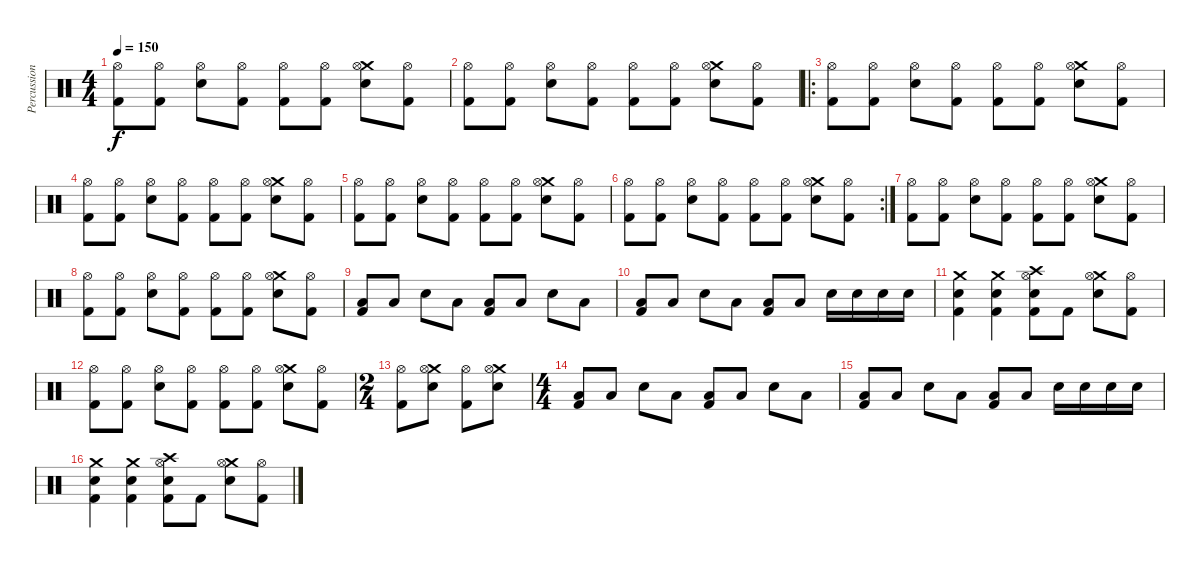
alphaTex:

\track ("Percussion" "Percussion") {instrument percussion}
\staff {score}
\articulation defaults
\ts (4 4)
\tempo 150
\clef neutral
\ks c
("Hi-Hat (open)" "Kick (hit) 2").8{dy f} ("Hi-Hat (open)" "Kick (hit) 2").8 ("Hi-Hat (open)" "Snare (hit) 2").8 ("Hi-Hat (open)" "Kick (hit) 2").8 ("Hi-Hat (open)" "Kick (hit) 2").8 ("Hi-Hat (open)" "Kick (hit) 2").8 ("Crash medium (hit)" "Hi-Hat (open)" "Snare (hit) 2").8 ("Hi-Hat (open)" "Kick (hit) 2").8 |
("Hi-Hat (open)" "Kick (hit) 2").8 ("Hi-Hat (open)" "Kick (hit) 2").8 ("Hi-Hat (open)" "Snare (hit) 2").8 ("Hi-Hat (open)" "Kick (hit) 2").8 ("Hi-Hat (open)" "Kick (hit) 2").8 ("Hi-Hat (open)" "Kick (hit) 2").8 ("Crash medium (hit)" "Hi-Hat (open)" "Snare (hit) 2").8 ("Hi-Hat (open)" "Kick (hit) 2").8 |
\ro
("Hi-Hat (open)" "Kick (hit) 2").8 ("Hi-Hat (open)" "Kick (hit) 2").8 ("Hi-Hat (open)" "Snare (hit) 2").8 ("Hi-Hat (open)" "Kick (hit) 2").8 ("Hi-Hat (open)" "Kick (hit) 2").8 ("Hi-Hat (open)" "Kick (hit) 2").8 ("Crash medium (hit)" "Hi-Hat (open)" "Snare (hit) 2").8 ("Hi-Hat (open)" "Kick (hit) 2").8 |
("Hi-Hat (open)" "Kick (hit) 2").8 ("Hi-Hat (open)" "Kick (hit) 2").8 ("Hi-Hat (open)" "Snare (hit) 2").8 ("Hi-Hat (open)" "Kick (hit) 2").8 ("Hi-Hat (open)" "Kick (hit) 2").8 ("Hi-Hat (open)" "Kick (hit) 2").8 ("Crash medium (hit)" "Hi-Hat (open)" "Snare (hit) 2").8 ("Hi-Hat (open)" "Kick (hit) 2").8 |
("Hi-Hat (open)" "Kick (hit) 2").8 ("Hi-Hat (open)" "Kick (hit) 2").8 ("Hi-Hat (open)" "Snare (hit) 2").8 ("Hi-Hat (open)" "Kick (hit) 2").8 ("Hi-Hat (open)" "Kick (hit) 2").8 ("Hi-Hat (open)" "Kick (hit) 2").8 ("Crash medium (hit)" "Hi-Hat (open)" "Snare (hit) 2").8 ("Hi-Hat (open)" "Kick (hit) 2").8 |
\rc 2
("Hi-Hat (open)" "Kick (hit) 2").8 ("Hi-Hat (open)" "Kick (hit) 2").8 ("Hi-Hat (open)" "Snare (hit) 2").8 ("Hi-Hat (open)" "Kick (hit) 2").8 ("Hi-Hat (open)" "Kick (hit) 2").8 ("Hi-Hat (open)" "Kick (hit) 2").8 ("Crash medium (hit)" "Hi-Hat (open)" "Snare (hit) 2").8 ("Hi-Hat (open)" "Kick (hit) 2").8 |
("Hi-Hat (open)" "Kick (hit) 2").8 ("Hi-Hat (open)" "Kick (hit) 2").8 ("Hi-Hat (open)" "Snare (hit) 2").8 ("Hi-Hat (open)" "Kick (hit) 2").8 ("Hi-Hat (open)" "Kick (hit) 2").8 ("Hi-Hat (open)" "Kick (hit) 2").8 ("Crash medium (hit)" "Hi-Hat (open)" "Snare (hit) 2").8 ("Hi-Hat (open)" "Kick (hit) 2").8 |
("Hi-Hat (open)" "Kick (hit) 2").8 ("Hi-Hat (open)" "Kick (hit) 2").8 ("Hi-Hat (open)" "Snare (hit) 2").8 ("Hi-Hat (open)" "Kick (hit) 2").8 ("Hi-Hat (open)" "Kick (hit) 2").8 ("Hi-Hat (open)" "Kick (hit) 2").8 ("Crash medium (hit)" "Hi-Hat (open)" "Snare (hit) 2").8 ("Hi-Hat (open)" "Kick (hit) 2").8 |
("Low Floor Tom (hit)" "Kick (hit) 2").8 "Low Floor Tom (hit)".8 "Snare (hit) 2".8 "Low Floor Tom (hit)".8 ("Low Floor Tom (hit)" "Kick (hit) 2").8 "Low Floor Tom (hit)".8 "Snare (hit) 2".8 "Low Floor Tom (hit)".8 |
("Low Floor Tom (hit)" "Kick (hit) 2").8 "Low Floor Tom (hit)".8 "Snare (hit) 2".8 "Low Floor Tom (hit)".8 ("Low Floor Tom (hit)" "Kick (hit) 2").8 "Low Floor Tom (hit)".8 "Snare (hit) 2".16 "Snare (hit) 2".16 "Snare (hit) 2".16 "Snare (hit) 2".16 |
("Crash medium (hit)" "Snare (hit) 2" "Kick (hit) 2").4 ("Crash medium (hit)" "Snare (hit) 2" "Kick (hit) 2").4 ("Crash high (hit)" "Hi-Hat (open)" "Snare (hit) 2" "Kick (hit) 2").8 "Kick (hit) 2".8 ("Crash medium (hit)" "Hi-Hat (open)" "Snare (hit) 2").8 ("Hi-Hat (open)" "Kick (hit) 2").8 |
("Hi-Hat (open)" "Kick (hit) 2").8 ("Hi-Hat (open)" "Kick (hit) 2").8 ("Hi-Hat (open)" "Snare (hit) 2").8 ("Hi-Hat (open)" "Kick (hit) 2").8 ("Hi-Hat (open)" "Kick (hit) 2").8 ("Hi-Hat (open)" "Kick (hit) 2").8 ("Crash medium (hit)" "Hi-Hat (open)" "Snare (hit) 2").8 ("Hi-Hat (open)" "Kick (hit) 2").8 |
\ts (2 4)
("Hi-Hat (open)" "Kick (hit) 2").8 ("Crash medium (hit)" "Hi-Hat (open)" "Snare (hit) 2").8 ("Hi-Hat (open)" "Kick (hit) 2").8 ("Crash medium (hit)" "Hi-Hat (open)" "Snare (hit) 2").8 |
\ts (4 4)
("Low Floor Tom (hit)" "Kick (hit) 2").8 "Low Floor Tom (hit)".8 "Snare (hit) 2".8 "Low Floor Tom (hit)".8 ("Low Floor Tom (hit)" "Kick (hit) 2").8 "Low Floor Tom (hit)".8 "Snare (hit) 2".8 "Low Floor Tom (hit)".8 |
("Low Floor Tom (hit)" "Kick (hit) 2").8 "Low Floor Tom (hit)".8 "Snare (hit) 2".8 "Low Floor Tom (hit)".8 ("Low Floor Tom (hit)" "Kick (hit) 2").8 "Low Floor Tom (hit)".8 "Snare (hit) 2".16 "Snare (hit) 2".16 "Snare (hit) 2".16 "Snare (hit) 2".16 |
("Crash medium (hit)" "Snare (hit) 2" "Kick (hit) 2").4 ("Crash medium (hit)" "Snare (hit) 2" "Kick (hit) 2").4 ("Crash high (hit)" "Hi-Hat (open)" "Snare (hit) 2" "Kick (hit) 2").8 "Kick (hit) 2".8 ("Crash medium (hit)" "Hi-Hat (open)" "Snare (hit) 2").8 ("Hi-Hat (open)" "Kick (hit) 2").8
